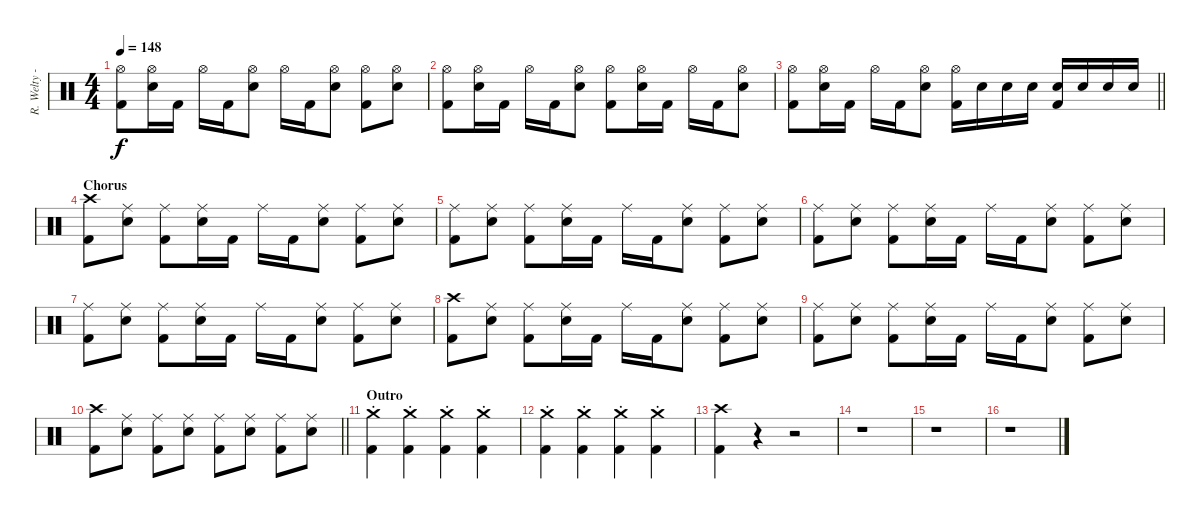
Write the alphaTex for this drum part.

\track ("R. Welty - Drums" "R. Welty -") {instrument percussion}
\staff {score}
\articulation defaults
\ts (4 4)
\tempo 148
\clef neutral
\ks c
("Hi-Hat (open)" "Kick (hit) 2").8{dy f} ("Hi-Hat (open)" "Snare (hit) 2").16 "Kick (hit) 2".16 "Hi-Hat (open)".16 "Kick (hit) 2".16 ("Hi-Hat (open)" "Snare (hit) 2").8 "Hi-Hat (open)".16 "Kick (hit) 2".16 ("Hi-Hat (open)" "Snare (hit) 2").8 ("Hi-Hat (open)" "Kick (hit) 2").8 ("Hi-Hat (open)" "Snare (hit) 2").8 |
("Hi-Hat (open)" "Kick (hit) 2").8 ("Hi-Hat (open)" "Snare (hit) 2").16 "Kick (hit) 2".16 "Hi-Hat (open)".16 "Kick (hit) 2".16 ("Hi-Hat (open)" "Snare (hit) 2").8 ("Hi-Hat (open)" "Kick (hit) 2").8 ("Hi-Hat (open)" "Snare (hit) 2").16 "Kick (hit) 2".16 "Hi-Hat (open)".16 "Kick (hit) 2".16 ("Hi-Hat (open)" "Snare (hit) 2").8 |
\barLineRight lightlight
("Hi-Hat (open)" "Kick (hit) 2").8 ("Hi-Hat (open)" "Snare (hit) 2").16 "Kick (hit) 2".16 "Hi-Hat (open)".16 "Kick (hit) 2".16 ("Hi-Hat (open)" "Snare (hit) 2").8 ("Hi-Hat (open)" "Kick (hit) 2").16 "Snare (hit) 2".16 "Snare (hit) 2".16 "Snare (hit) 2".16 ("Snare (hit) 2" "Kick (hit) 2").16 "Snare (hit) 2".16 "Snare (hit) 2".16 "Snare (hit) 2".16 |
\section ("" "Chorus")
("Crash high (hit)" "Kick (hit) 2").8 ("Ride (middle)" "Snare (hit) 2").8 ("Ride (middle)" "Kick (hit) 2").8 ("Ride (middle)" "Snare (hit) 2").16 "Kick (hit) 2".16 "Ride (middle)".16 "Kick (hit) 2".16 ("Ride (middle)" "Snare (hit) 2").8 ("Ride (middle)" "Kick (hit) 2").8 ("Ride (middle)" "Snare (hit) 2").8 |
("Ride (middle)" "Kick (hit) 2").8 ("Ride (middle)" "Snare (hit) 2").8 ("Ride (middle)" "Kick (hit) 2").8 ("Ride (middle)" "Snare (hit) 2").16 "Kick (hit) 2".16 "Ride (middle)".16 "Kick (hit) 2".16 ("Ride (middle)" "Snare (hit) 2").8 ("Ride (middle)" "Kick (hit) 2").8 ("Ride (middle)" "Snare (hit) 2").8 |
("Ride (middle)" "Kick (hit) 2").8 ("Ride (middle)" "Snare (hit) 2").8 ("Ride (middle)" "Kick (hit) 2").8 ("Ride (middle)" "Snare (hit) 2").16 "Kick (hit) 2".16 "Ride (middle)".16 "Kick (hit) 2".16 ("Ride (middle)" "Snare (hit) 2").8 ("Ride (middle)" "Kick (hit) 2").8 ("Ride (middle)" "Snare (hit) 2").8 |
("Ride (middle)" "Kick (hit) 2").8 ("Ride (middle)" "Snare (hit) 2").8 ("Ride (middle)" "Kick (hit) 2").8 ("Ride (middle)" "Snare (hit) 2").16 "Kick (hit) 2".16 "Ride (middle)".16 "Kick (hit) 2".16 ("Ride (middle)" "Snare (hit) 2").8 ("Ride (middle)" "Kick (hit) 2").8 ("Ride (middle)" "Snare (hit) 2").8 |
("Crash high (hit)" "Kick (hit) 2").8 ("Ride (middle)" "Snare (hit) 2").8 ("Ride (middle)" "Kick (hit) 2").8 ("Ride (middle)" "Snare (hit) 2").16 "Kick (hit) 2".16 "Ride (middle)".16 "Kick (hit) 2".16 ("Ride (middle)" "Snare (hit) 2").8 ("Ride (middle)" "Kick (hit) 2").8 ("Ride (middle)" "Snare (hit) 2").8 |
("Ride (middle)" "Kick (hit) 2").8 ("Ride (middle)" "Snare (hit) 2").8 ("Ride (middle)" "Kick (hit) 2").8 ("Ride (middle)" "Snare (hit) 2").16 "Kick (hit) 2".16 "Ride (middle)".16 "Kick (hit) 2".16 ("Ride (middle)" "Snare (hit) 2").8 ("Ride (middle)" "Kick (hit) 2").8 ("Ride (middle)" "Snare (hit) 2").8 |
\barLineRight lightlight
("Crash high (hit)" "Kick (hit) 2").8 ("Ride (middle)" "Snare (hit) 2").8 ("Ride (middle)" "Kick (hit) 2").8 ("Ride (middle)" "Snare (hit) 2").8 ("Ride (middle)" "Kick (hit) 2").8 ("Ride (middle)" "Snare (hit) 2").8 ("Ride (middle)" "Kick (hit) 2").8 ("Ride (middle)" "Snare (hit) 2").8 |
\section ("" "Outro")
("Crash medium (hit)"{st} "Kick (hit) 2").4 ("Crash medium (hit)"{st} "Kick (hit) 2").4 ("Crash medium (hit)"{st} "Kick (hit) 2").4 ("Crash medium (hit)"{st} "Kick (hit) 2").4 |
("Crash medium (hit)"{st} "Kick (hit) 2").4 ("Crash medium (hit)"{st} "Kick (hit) 2").4 ("Crash medium (hit)"{st} "Kick (hit) 2").4 ("Crash medium (hit)"{st} "Kick (hit) 2").4 |
("Crash high (hit)" "Kick (hit) 2").4 r.4 r.2 |
r.1 |
r.1 |
r.1
